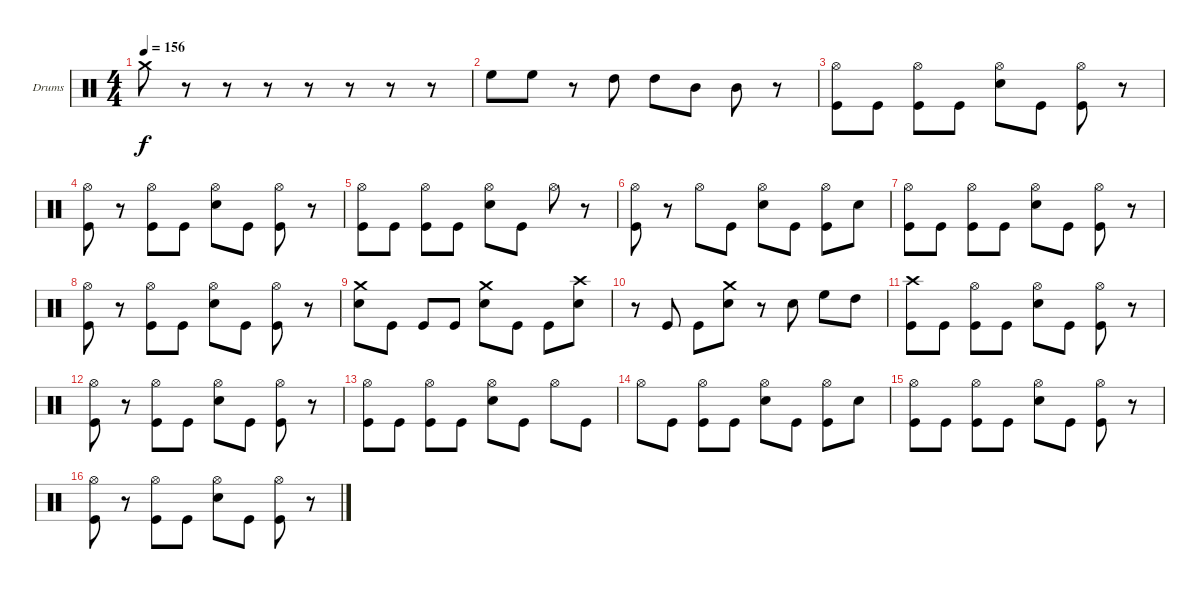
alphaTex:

\defaultSystemsLayout 4
\bracketExtendMode groupsimilarinstruments
\firstSystemTrackNameOrientation horizontal
\otherSystemsTrackNameOrientation horizontal
\track ("Anton Kubrak" "Drums") {instrument percussion}
\staff {score}
\articulation defaults
\ts (4 4)
\tempo 156
\clef neutral
\scale
0.333333
\ks c "Crash medium (hit)".8{dy f}
r.8 r.8 r.8 r.8 r.8 r.8 r.8 |
\scale
0.333333 "High Floor Tom (hit)".8 "High Floor Tom (hit)".8 r.8 "High Tom (hit)".8 "High Tom (hit)".8 "Mid Tom (hit)".8 "Mid Tom (hit)".8 r.8 |
\scale
0.333333 ("Hi-Hat (open)" "Kick (hit)").8 "Kick (hit)".8 ("Hi-Hat (open)" "Kick (hit)").8 "Kick (hit)".8 ("Hi-Hat (open)" "Snare (hit) 2").8 "Kick (hit)".8 ("Hi-Hat (open)" "Kick (hit)").8 r.8 |
\scale
0.333333 ("Hi-Hat (open)" "Kick (hit)").8 r.8 ("Hi-Hat (open)" "Kick (hit)").8 "Kick (hit)".8 ("Hi-Hat (open)" "Snare (hit) 2").8 "Kick (hit)".8 ("Hi-Hat (open)" "Kick (hit)").8 r.8 |
\scale
0.333333 ("Hi-Hat (open)" "Kick (hit)").8 "Kick (hit)".8 ("Hi-Hat (open)" "Kick (hit)").8 "Kick (hit)".8 ("Hi-Hat (open)" "Snare (hit) 2").8 "Kick (hit)".8 "Hi-Hat (open)".8 r.8 |
\scale
0.333333 ("Hi-Hat (open)" "Kick (hit)").8 r.8 "Hi-Hat (open)".8 "Kick (hit)".8 ("Hi-Hat (open)" "Snare (hit) 2").8 "Kick (hit)".8 ("Hi-Hat (open)" "Kick (hit)").8 "Snare (hit) 2".8 |
\scale
0.333333 ("Hi-Hat (open)" "Kick (hit)").8 "Kick (hit)".8 ("Hi-Hat (open)" "Kick (hit)").8 "Kick (hit)".8 ("Hi-Hat (open)" "Snare (hit) 2").8 "Kick (hit)".8 ("Hi-Hat (open)" "Kick (hit)").8 r.8 |
\scale
0.333333 ("Hi-Hat (open)" "Kick (hit)").8 r.8 ("Hi-Hat (open)" "Kick (hit)").8 "Kick (hit)".8 ("Hi-Hat (open)" "Snare (hit) 2").8 "Kick (hit)".8 ("Hi-Hat (open)" "Kick (hit)").8 r.8 |
\scale
0.333333 ("Crash medium (hit)" "Snare (hit) 2").8 "Kick (hit)".8 "Kick (hit)".8 "Kick (hit)".8 ("Crash medium (hit)" "Snare (hit) 2").8 "Kick (hit)".8 "Kick (hit)".8 ("Crash high (hit)" "Snare (hit) 2").8 |
\scale
0.333333 r.8 "Kick (hit)".8 "Kick (hit)".8 ("Crash medium (hit)" "Snare (hit) 2").8 r.8 "Snare (hit) 2".8 "High Floor Tom (hit)".8 "High Tom (hit)".8 |
\scale
0.333333 ("Crash high (hit)" "Kick (hit)").8 "Kick (hit)".8 ("Hi-Hat (open)" "Kick (hit)").8 "Kick (hit)".8 ("Hi-Hat (open)" "Snare (hit) 2").8 "Kick (hit)".8 ("Hi-Hat (open)" "Kick (hit)").8 r.8 |
\scale
0.333333 ("Hi-Hat (open)" "Kick (hit)").8 r.8 ("Hi-Hat (open)" "Kick (hit)").8 "Kick (hit)".8 ("Hi-Hat (open)" "Snare (hit) 2").8 "Kick (hit)".8 ("Hi-Hat (open)" "Kick (hit)").8 r.8 |
\scale
0.333333 ("Hi-Hat (open)" "Kick (hit)").8 "Kick (hit)".8 ("Hi-Hat (open)" "Kick (hit)").8 "Kick (hit)".8 ("Hi-Hat (open)" "Snare (hit) 2").8 "Kick (hit)".8 "Hi-Hat (open)".8 "Kick (hit)".8 |
\scale
0.333333 "Hi-Hat (open)".8 "Kick (hit)".8 ("Hi-Hat (open)" "Kick (hit)").8 "Kick (hit)".8 ("Hi-Hat (open)" "Snare (hit) 2").8 "Kick (hit)".8 ("Hi-Hat (open)" "Kick (hit)").8 "Snare (hit) 2".8 |
\scale
0.333333 ("Hi-Hat (open)" "Kick (hit)").8 "Kick (hit)".8 ("Hi-Hat (open)" "Kick (hit)").8 "Kick (hit)".8 ("Hi-Hat (open)" "Snare (hit) 2").8 "Kick (hit)".8 ("Hi-Hat (open)" "Kick (hit)").8 r.8 |
\scale
0.333333 ("Hi-Hat (open)" "Kick (hit)").8 r.8 ("Hi-Hat (open)" "Kick (hit)").8 "Kick (hit)".8 ("Hi-Hat (open)" "Snare (hit) 2").8 "Kick (hit)".8 ("Hi-Hat (open)" "Kick (hit)").8 r.8
